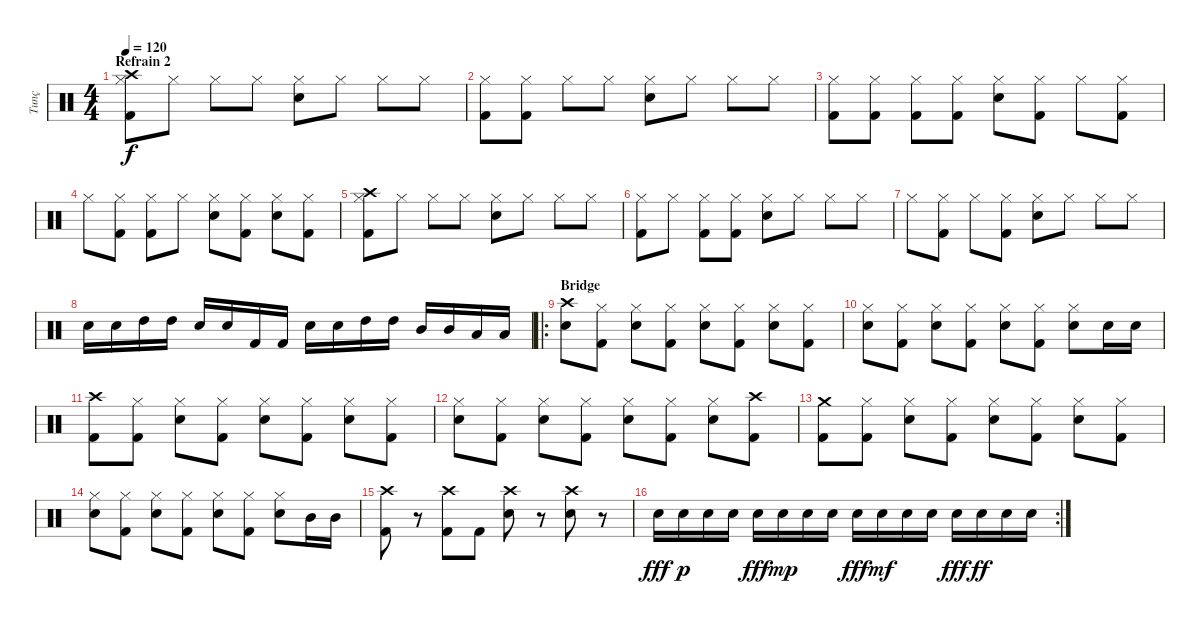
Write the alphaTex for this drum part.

\track ("Tunç" "Tunç") {instrument percussion}
\staff {score}
\articulation defaults
\ts (4 4)
\section ("" "Refrain 2")
\tempo 120
\clef neutral
\ks c
("Kick (hit) 2" "Hi-Hat (closed)" "Crash high (hit)").8{dy f} "Hi-Hat (closed)".8 "Hi-Hat (closed)".8 "Hi-Hat (closed)".8 ("Snare (hit) 2" "Hi-Hat (closed)").8 "Hi-Hat (closed)".8 "Hi-Hat (closed)".8 "Hi-Hat (closed)".8 |
("Kick (hit) 2" "Hi-Hat (closed)").8 ("Kick (hit) 2" "Hi-Hat (closed)").8 "Hi-Hat (closed)".8 "Hi-Hat (closed)".8 ("Snare (hit) 2" "Hi-Hat (closed)").8 "Hi-Hat (closed)".8 "Hi-Hat (closed)".8 "Hi-Hat (closed)".8 |
("Kick (hit) 2" "Hi-Hat (closed)").8 ("Kick (hit) 2" "Hi-Hat (closed)").8 ("Kick (hit) 2" "Hi-Hat (closed)").8 ("Kick (hit) 2" "Hi-Hat (closed)").8 ("Snare (hit) 2" "Hi-Hat (closed)").8 ("Kick (hit) 2" "Hi-Hat (closed)").8 "Hi-Hat (closed)".8 ("Kick (hit) 2" "Hi-Hat (closed)").8 |
"Hi-Hat (closed)".8 ("Kick (hit) 2" "Hi-Hat (closed)").8 ("Kick (hit) 2" "Hi-Hat (closed)").8 "Hi-Hat (closed)".8 ("Snare (hit) 2" "Hi-Hat (closed)").8 ("Kick (hit) 2" "Hi-Hat (closed)").8 ("Snare (hit) 2" "Hi-Hat (closed)").8 ("Kick (hit) 2" "Hi-Hat (closed)").8 |
("Kick (hit) 2" "Hi-Hat (closed)" "Crash high (hit)").8 "Hi-Hat (closed)".8 "Hi-Hat (closed)".8 "Hi-Hat (closed)".8 ("Snare (hit) 2" "Hi-Hat (closed)").8 "Hi-Hat (closed)".8 "Hi-Hat (closed)".8 "Hi-Hat (closed)".8 |
("Kick (hit) 2" "Hi-Hat (closed)").8 "Hi-Hat (closed)".8 ("Kick (hit) 2" "Hi-Hat (closed)").8 ("Kick (hit) 2" "Hi-Hat (closed)").8 ("Snare (hit) 2" "Hi-Hat (closed)").8 "Hi-Hat (closed)".8 "Hi-Hat (closed)".8 "Hi-Hat (closed)".8 |
"Hi-Hat (closed)".8 ("Kick (hit) 2" "Hi-Hat (closed)").8 "Hi-Hat (closed)".8 ("Kick (hit) 2" "Hi-Hat (closed)").8 ("Snare (hit) 2" "Hi-Hat (closed)").8 "Hi-Hat (closed)".8 "Hi-Hat (closed)".8 "Hi-Hat (closed)".8 |
"Snare (hit) 2".16 "Snare (hit) 2".16 "High Tom (hit)".16 "High Tom (hit)".16 "Snare (hit) 2".16 "Snare (hit) 2".16 "Kick (hit) 2".16 "Kick (hit) 2".16 "Snare (hit) 2".16 "Snare (hit) 2".16 "High Tom (hit)".16 "High Tom (hit)".16 "Mid Tom (hit)".16 "Mid Tom (hit)".16 "Low Floor Tom (hit)".16 "Low Floor Tom (hit)".16 |
\ro
\section ("" "Bridge")
("Crash high (hit)" "Snare (hit) 2").8 ("Hi-Hat (closed)" "Kick (hit) 2").8 ("Hi-Hat (closed)" "Snare (hit) 2").8 ("Hi-Hat (closed)" "Kick (hit) 2").8 ("Hi-Hat (closed)" "Snare (hit) 2").8 ("Hi-Hat (closed)" "Kick (hit) 2").8 ("Hi-Hat (closed)" "Snare (hit) 2").8 ("Hi-Hat (closed)" "Kick (hit) 2").8 |
("Hi-Hat (closed)" "Snare (hit) 2").8 ("Hi-Hat (closed)" "Kick (hit) 2").8 ("Hi-Hat (closed)" "Snare (hit) 2").8 ("Hi-Hat (closed)" "Kick (hit) 2").8 ("Hi-Hat (closed)" "Snare (hit) 2").8 ("Hi-Hat (closed)" "Kick (hit) 2").8 ("Hi-Hat (closed)" "Snare (hit) 2").8 "Snare (hit) 2".16 "Snare (hit) 2".16 |
("Crash high (hit)" "Kick (hit) 2").8 ("Hi-Hat (closed)" "Kick (hit) 2").8 ("Hi-Hat (closed)" "Snare (hit) 2").8 ("Hi-Hat (closed)" "Kick (hit) 2").8 ("Hi-Hat (closed)" "Snare (hit) 2").8 ("Hi-Hat (closed)" "Kick (hit) 2").8 ("Hi-Hat (closed)" "Snare (hit) 2").8 ("Hi-Hat (closed)" "Kick (hit) 2").8 |
("Hi-Hat (closed)" "Snare (hit) 2").8 ("Hi-Hat (closed)" "Kick (hit) 2").8 ("Hi-Hat (closed)" "Snare (hit) 2").8 ("Hi-Hat (closed)" "Kick (hit) 2").8 ("Hi-Hat (closed)" "Snare (hit) 2").8 ("Hi-Hat (closed)" "Kick (hit) 2").8 ("Hi-Hat (closed)" "Snare (hit) 2").8 ("Crash high (hit)" "Kick (hit) 2").8 |
("Crash medium (hit)" "Kick (hit) 2").8 ("Hi-Hat (closed)" "Kick (hit) 2").8 ("Hi-Hat (closed)" "Snare (hit) 2").8 ("Hi-Hat (closed)" "Kick (hit) 2").8 ("Hi-Hat (closed)" "Snare (hit) 2").8 ("Hi-Hat (closed)" "Kick (hit) 2").8 ("Hi-Hat (closed)" "Snare (hit) 2").8 ("Hi-Hat (closed)" "Kick (hit) 2").8 |
("Hi-Hat (closed)" "Snare (hit) 2").8 ("Hi-Hat (closed)" "Kick (hit) 2").8 ("Hi-Hat (closed)" "Snare (hit) 2").8 ("Hi-Hat (closed)" "Kick (hit) 2").8 ("Hi-Hat (closed)" "Snare (hit) 2").8 ("Hi-Hat (closed)" "Kick (hit) 2").8 ("Hi-Hat (closed)" "Snare (hit) 2").8 "Mid Tom (hit)".16 "Mid Tom (hit)".16 |
("Crash high (hit)" "Kick (hit) 2").8 r.8 ("Crash high (hit)" "Kick (hit) 2").8 "Kick (hit) 2".8 ("Crash high (hit)" "Snare (hit) 2").8 r.8 ("Crash high (hit)" "Snare (hit) 2").8 r.8 |
\rc 2 "Snare (hit) 2".16{dy fff} "Snare (hit) 2".16{dy p} "Snare (hit) 2".16 "Snare (hit) 2".16 "Snare (hit) 2".16{dy fff} "Snare (hit) 2".16{dy mp} "Snare (hit) 2".16 "Snare (hit) 2".16 "Snare (hit) 2".16{dy fff} "Snare (hit) 2".16{dy mf} "Snare (hit) 2".16 "Snare (hit) 2".16 "Snare (hit) 2".16{dy fff} "Snare (hit) 2".16{dy ff} "Snare (hit) 2".16 "Snare (hit) 2".16
